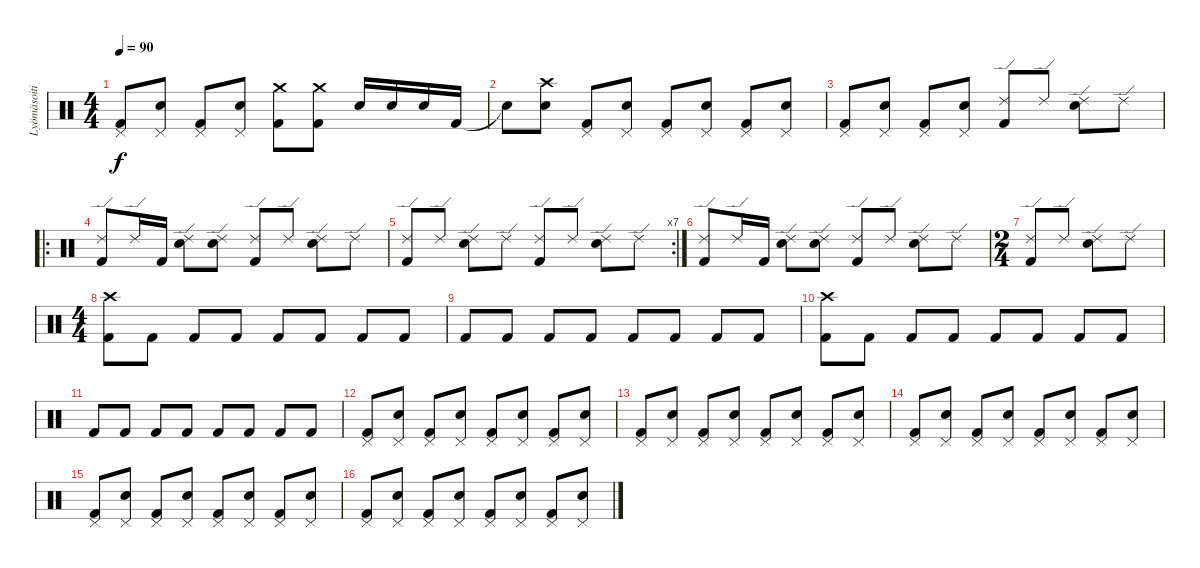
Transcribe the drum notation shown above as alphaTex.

\track ("Lyömäsoitin" "Lyömäsoiti") {instrument percussion}
\staff {score}
\articulation defaults
\ts (4 4)
\tempo 90
\clef neutral
\ks c
("Pedal Hi-Hat (hit)" "Kick (hit) 2").8{dy f} ("Pedal Hi-Hat (hit)" "Snare (hit) 2").8 ("Pedal Hi-Hat (hit)" "Kick (hit) 2").8 ("Pedal Hi-Hat (hit)" "Snare (hit) 2").8 ("Crash medium (hit)" "Kick (hit) 2").8 ("Crash medium (hit)" "Kick (hit) 2").8 "Snare (hit) 2".16 "Snare (hit) 2".16 "Snare (hit) 2".16 "Kick (hit) 2".16 |
"Snare (hit)"{t}.8 ("Crash high (hit)" "Snare (hit) 2").8 ("Pedal Hi-Hat (hit)" "Kick (hit) 2").8 ("Pedal Hi-Hat (hit)" "Snare (hit) 2").8 ("Pedal Hi-Hat (hit)" "Kick (hit) 2").8 ("Pedal Hi-Hat (hit)" "Snare (hit) 2").8 ("Pedal Hi-Hat (hit)" "Kick (hit) 2").8 ("Pedal Hi-Hat (hit)" "Snare (hit) 2").8 |
("Pedal Hi-Hat (hit)" "Kick (hit) 2").8 ("Pedal Hi-Hat (hit)" "Snare (hit) 2").8 ("Pedal Hi-Hat (hit)" "Kick (hit) 2").8 ("Pedal Hi-Hat (hit)" "Snare (hit) 2").8 ("Ride (edge) 2" "Kick (hit) 2").8 "Ride (edge) 2".8 ("Ride (edge) 2" "Snare (hit) 2").8 "Ride (edge) 2".8 |
\ro
("Ride (edge) 2" "Kick (hit) 2").8 "Ride (edge) 2".16 "Kick (hit) 2".16 ("Ride (edge) 2" "Snare (hit) 2").8 ("Ride (edge) 2" "Snare (hit) 2").8 ("Ride (edge) 2" "Kick (hit) 2").8 "Ride (edge) 2".8 ("Ride (edge) 2" "Snare (hit) 2").8 "Ride (edge) 2".8 |
\rc 7
("Ride (edge) 2" "Kick (hit) 2").8 "Ride (edge) 2".8 ("Ride (edge) 2" "Snare (hit) 2").8 "Ride (edge) 2".8 ("Ride (edge) 2" "Kick (hit) 2").8 "Ride (edge) 2".8 ("Ride (edge) 2" "Snare (hit) 2").8 "Ride (edge) 2".8 |
("Ride (edge) 2" "Kick (hit) 2").8 "Ride (edge) 2".16 "Kick (hit) 2".16 ("Ride (edge) 2" "Snare (hit) 2").8 ("Ride (edge) 2" "Snare (hit) 2").8 ("Ride (edge) 2" "Kick (hit) 2").8 "Ride (edge) 2".8 ("Ride (edge) 2" "Snare (hit) 2").8 "Ride (edge) 2".8 |
\ts (2 4)
("Ride (edge) 2" "Kick (hit) 2").8 "Ride (edge) 2".8 ("Ride (edge) 2" "Snare (hit) 2").8 "Ride (edge) 2".8 |
\ts (4 4)
("Crash high (hit)" "Kick (hit) 2").8 "Kick (hit) 2".8 "Kick (hit) 2".8 "Kick (hit) 2".8 "Kick (hit) 2".8 "Kick (hit) 2".8 "Kick (hit) 2".8 "Kick (hit) 2".8 |
"Kick (hit) 2".8 "Kick (hit) 2".8 "Kick (hit) 2".8 "Kick (hit) 2".8 "Kick (hit) 2".8 "Kick (hit) 2".8 "Kick (hit) 2".8 "Kick (hit) 2".8 |
("Crash high (hit)" "Kick (hit) 2").8 "Kick (hit) 2".8 "Kick (hit) 2".8 "Kick (hit) 2".8 "Kick (hit) 2".8 "Kick (hit) 2".8 "Kick (hit) 2".8 "Kick (hit) 2".8 |
"Kick (hit) 2".8 "Kick (hit) 2".8 "Kick (hit) 2".8 "Kick (hit) 2".8 "Kick (hit) 2".8 "Kick (hit) 2".8 "Kick (hit) 2".8 "Kick (hit) 2".8 |
("Pedal Hi-Hat (hit)" "Kick (hit) 2").8 ("Pedal Hi-Hat (hit)" "Snare (hit) 2").8 ("Pedal Hi-Hat (hit)" "Kick (hit) 2").8 ("Pedal Hi-Hat (hit)" "Snare (hit) 2").8 ("Pedal Hi-Hat (hit)" "Kick (hit) 2").8 ("Pedal Hi-Hat (hit)" "Snare (hit) 2").8 ("Pedal Hi-Hat (hit)" "Kick (hit) 2").8 ("Pedal Hi-Hat (hit)" "Snare (hit) 2").8 |
("Pedal Hi-Hat (hit)" "Kick (hit) 2").8 ("Pedal Hi-Hat (hit)" "Snare (hit) 2").8 ("Pedal Hi-Hat (hit)" "Kick (hit) 2").8 ("Pedal Hi-Hat (hit)" "Snare (hit) 2").8 ("Pedal Hi-Hat (hit)" "Kick (hit) 2").8 ("Pedal Hi-Hat (hit)" "Snare (hit) 2").8 ("Pedal Hi-Hat (hit)" "Kick (hit) 2").8 ("Pedal Hi-Hat (hit)" "Snare (hit) 2").8 |
("Pedal Hi-Hat (hit)" "Kick (hit) 2").8 ("Pedal Hi-Hat (hit)" "Snare (hit) 2").8 ("Pedal Hi-Hat (hit)" "Kick (hit) 2").8 ("Pedal Hi-Hat (hit)" "Snare (hit) 2").8 ("Pedal Hi-Hat (hit)" "Kick (hit) 2").8 ("Pedal Hi-Hat (hit)" "Snare (hit) 2").8 ("Pedal Hi-Hat (hit)" "Kick (hit) 2").8 ("Pedal Hi-Hat (hit)" "Snare (hit) 2").8 |
("Pedal Hi-Hat (hit)" "Kick (hit) 2").8 ("Pedal Hi-Hat (hit)" "Snare (hit) 2").8 ("Pedal Hi-Hat (hit)" "Kick (hit) 2").8 ("Pedal Hi-Hat (hit)" "Snare (hit) 2").8 ("Pedal Hi-Hat (hit)" "Kick (hit) 2").8 ("Pedal Hi-Hat (hit)" "Snare (hit) 2").8 ("Pedal Hi-Hat (hit)" "Kick (hit) 2").8 ("Pedal Hi-Hat (hit)" "Snare (hit) 2").8 |
("Pedal Hi-Hat (hit)" "Kick (hit) 2").8 ("Pedal Hi-Hat (hit)" "Snare (hit) 2").8 ("Pedal Hi-Hat (hit)" "Kick (hit) 2").8 ("Pedal Hi-Hat (hit)" "Snare (hit) 2").8 ("Pedal Hi-Hat (hit)" "Kick (hit) 2").8 ("Pedal Hi-Hat (hit)" "Snare (hit) 2").8 ("Pedal Hi-Hat (hit)" "Kick (hit) 2").8 ("Pedal Hi-Hat (hit)" "Snare (hit) 2").8
